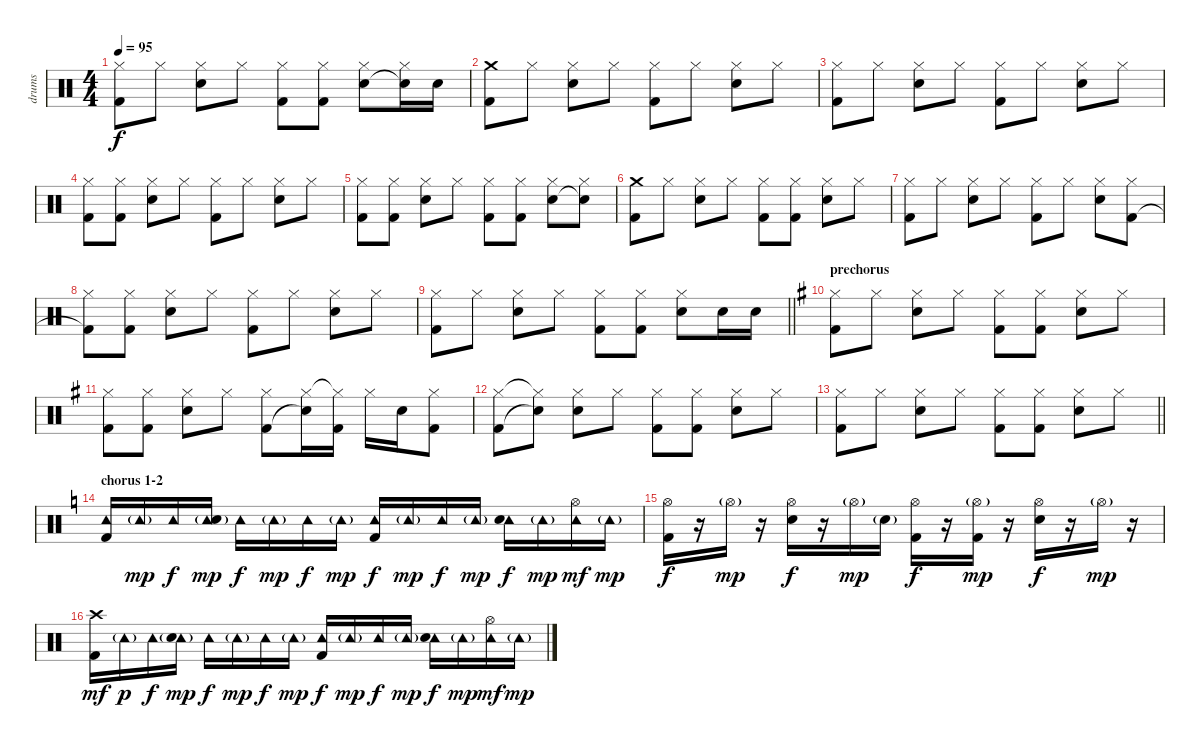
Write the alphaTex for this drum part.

\track ("drums" "drums") {instrument percussion}
\staff {score}
\articulation defaults
\ts (4 4)
\tempo 95
\clef neutral
\ks c
("Hi-Hat (closed)" "Kick (hit) 2").8{dy f} "Hi-Hat (closed)".8 ("Hi-Hat (closed)" "Snare (hit) 2").8 "Hi-Hat (closed)".8 ("Hi-Hat (closed)" "Kick (hit) 2").8 ("Hi-Hat (closed)" "Kick (hit) 2").8 ("Hi-Hat (closed)" "Snare (hit) 2").8 ("Hi-Hat (closed)" "Snare (hit)"{t}).16 "Snare (hit) 2".16 |
("Crash medium (hit)" "Kick (hit) 2").8 "Hi-Hat (closed)".8 ("Hi-Hat (closed)" "Snare (hit) 2").8 "Hi-Hat (closed)".8 ("Hi-Hat (closed)" "Kick (hit) 2").8 "Hi-Hat (closed)".8 ("Hi-Hat (closed)" "Snare (hit) 2").8 "Hi-Hat (closed)".8 |
("Hi-Hat (closed)" "Kick (hit) 2").8 "Hi-Hat (closed)".8 ("Hi-Hat (closed)" "Snare (hit) 2").8 "Hi-Hat (closed)".8 ("Hi-Hat (closed)" "Kick (hit) 2").8 "Hi-Hat (closed)".8 ("Hi-Hat (closed)" "Snare (hit) 2").8 "Hi-Hat (closed)".8 |
("Hi-Hat (closed)" "Kick (hit) 2").8 ("Hi-Hat (closed)" "Kick (hit) 2").8 ("Hi-Hat (closed)" "Snare (hit) 2").8 "Hi-Hat (closed)".8 ("Hi-Hat (closed)" "Kick (hit) 2").8 "Hi-Hat (closed)".8 ("Hi-Hat (closed)" "Snare (hit) 2").8 "Hi-Hat (closed)".8 |
("Hi-Hat (closed)" "Kick (hit) 2").8 ("Hi-Hat (closed)" "Kick (hit) 2").8 ("Hi-Hat (closed)" "Snare (hit) 2").8 "Hi-Hat (closed)".8 ("Hi-Hat (closed)" "Kick (hit) 2").8 ("Hi-Hat (closed)" "Kick (hit) 2").8 ("Hi-Hat (closed)" "Snare (hit) 2").8 ("Hi-Hat (closed)" "Snare (hit)"{t}).8 |
("Crash medium (hit)" "Kick (hit) 2").8 "Hi-Hat (closed)".8 ("Hi-Hat (closed)" "Snare (hit) 2").8 "Hi-Hat (closed)".8 ("Hi-Hat (closed)" "Kick (hit) 2").8 ("Hi-Hat (closed)" "Kick (hit) 2").8 ("Hi-Hat (closed)" "Snare (hit) 2").8 "Hi-Hat (closed)".8 |
("Hi-Hat (closed)" "Kick (hit) 2").8 "Hi-Hat (closed)".8 ("Hi-Hat (closed)" "Snare (hit) 2").8 "Hi-Hat (closed)".8 ("Hi-Hat (closed)" "Kick (hit) 2").8 "Hi-Hat (closed)".8 ("Hi-Hat (closed)" "Snare (hit) 2").8 ("Hi-Hat (closed)" "Kick (hit) 2").8 |
("Hi-Hat (closed)" "Kick (hit) 2"{t}).8 ("Hi-Hat (closed)" "Kick (hit) 2").8 ("Hi-Hat (closed)" "Snare (hit) 2").8 "Hi-Hat (closed)".8 ("Hi-Hat (closed)" "Kick (hit) 2").8 "Hi-Hat (closed)".8 ("Hi-Hat (closed)" "Snare (hit) 2").8 "Hi-Hat (closed)".8 |
\barLineRight lightlight
("Hi-Hat (closed)" "Kick (hit) 2").8 "Hi-Hat (closed)".8 ("Hi-Hat (closed)" "Snare (hit) 2").8 "Hi-Hat (closed)".8 ("Hi-Hat (closed)" "Kick (hit) 2").8 ("Hi-Hat (closed)" "Kick (hit) 2").8 ("Hi-Hat (closed)" "Snare (hit) 2").8 "Snare (hit) 2".16 "Snare (hit) 2".16 |
\section ("" "prechorus")
\ks g
("Hi-Hat (closed)" "Kick (hit) 2").8 "Hi-Hat (closed)".8 ("Hi-Hat (closed)" "Snare (hit) 2").8 "Hi-Hat (closed)".8 ("Hi-Hat (closed)" "Kick (hit) 2").8 ("Hi-Hat (closed)" "Kick (hit) 2").8 ("Hi-Hat (closed)" "Snare (hit) 2").8 "Hi-Hat (closed)".8 |
("Hi-Hat (closed)" "Kick (hit) 2").8 ("Hi-Hat (closed)" "Kick (hit) 2").8 ("Hi-Hat (closed)" "Snare (hit) 2").8 "Hi-Hat (closed)".8 ("Hi-Hat (closed)" "Kick (hit) 2").8 ("Hi-Hat (closed)" "Snare (hit)"{t}).16 ("Hi-Hat (closed)"{t} "Kick (hit) 2").16 "Hi-Hat (closed)".16 "Snare (hit) 2".16 ("Hi-Hat (closed)" "Kick (hit) 2").8 |
("Hi-Hat (closed)" "Kick (hit) 2").8 ("Hi-Hat (closed)"{t} "Snare (hit)"{t}).8 ("Hi-Hat (closed)" "Snare (hit) 2").8 "Hi-Hat (closed)".8 ("Hi-Hat (closed)" "Kick (hit) 2").8 ("Hi-Hat (closed)" "Kick (hit) 2").8 ("Hi-Hat (closed)" "Snare (hit) 2").8 "Hi-Hat (closed)".8 |
\barLineRight lightlight
("Hi-Hat (closed)" "Kick (hit) 2").8 "Hi-Hat (closed)".8 ("Hi-Hat (closed)" "Snare (hit) 2").8 "Hi-Hat (closed)".8 ("Hi-Hat (closed)" "Kick (hit) 2").8 ("Hi-Hat (closed)" "Kick (hit) 2").8 ("Hi-Hat (closed)" "Snare (hit) 2").8 "Hi-Hat (closed)".8 |
\section ("" "chorus 1-2")
\ks c
("Tambourine (hit)" "Kick (hit) 2").16 "Tambourine (hit)"{g}.16{dy mp} "Tambourine (hit)".16{dy f} ("Tambourine (hit)"{g} "Electric Snare (hit)").16{dy mp} "Tambourine (hit)".16{dy f} "Tambourine (hit)"{g}.16{dy mp} "Tambourine (hit)".16{dy f} "Tambourine (hit)"{g}.16{dy mp} ("Tambourine (hit)" "Kick (hit) 2").16{dy f} "Tambourine (hit)"{g}.16{dy mp} "Tambourine (hit)".16{dy f} "Tambourine (hit)"{g}.16{dy mp} ("Tambourine (hit)" "Electric Snare (hit)").16{dy f} "Tambourine (hit)"{g}.16{dy mp} ("Hi-Hat (open)" "Tambourine (hit)").16{dy mf} "Tambourine (hit)"{g}.16{dy mp} |
("Hi-Hat (open)" "Kick (hit) 2").16{dy f} r.16 "Hi-Hat (open)"{g}.16{dy mp} r.16 ("Hi-Hat (open)" "Electric Snare (hit)").16{dy f} r.16 "Hi-Hat (open)"{g}.16{dy mp} "Electric Snare (hit)"{g}.16 ("Hi-Hat (open)" "Kick (hit) 2").16{dy f} r.16 ("Hi-Hat (open)"{g} "Kick (hit) 2").16{dy mp} r.16 ("Hi-Hat (open)" "Electric Snare (hit)").16{dy f} r.16 "Hi-Hat (open)"{g}.16{dy mp} r.16 |
("Crash high (hit)" "Kick (hit) 2").16{dy mf} "Tambourine (hit)"{g}.16{dy p} "Tambourine (hit)".16{dy f} ("Tambourine (hit)"{g} "Electric Snare (hit)").16{dy mp} "Tambourine (hit)".16{dy f} "Tambourine (hit)"{g}.16{dy mp} "Tambourine (hit)".16{dy f} "Tambourine (hit)"{g}.16{dy mp} ("Tambourine (hit)" "Kick (hit) 2").16{dy f} "Tambourine (hit)"{g}.16{dy mp} "Tambourine (hit)".16{dy f} "Tambourine (hit)"{g}.16{dy mp} ("Tambourine (hit)" "Electric Snare (hit)").16{dy f} "Tambourine (hit)"{g}.16{dy mp} ("Hi-Hat (open)" "Tambourine (hit)").16{dy mf} "Tambourine (hit)"{g}.16{dy mp}
